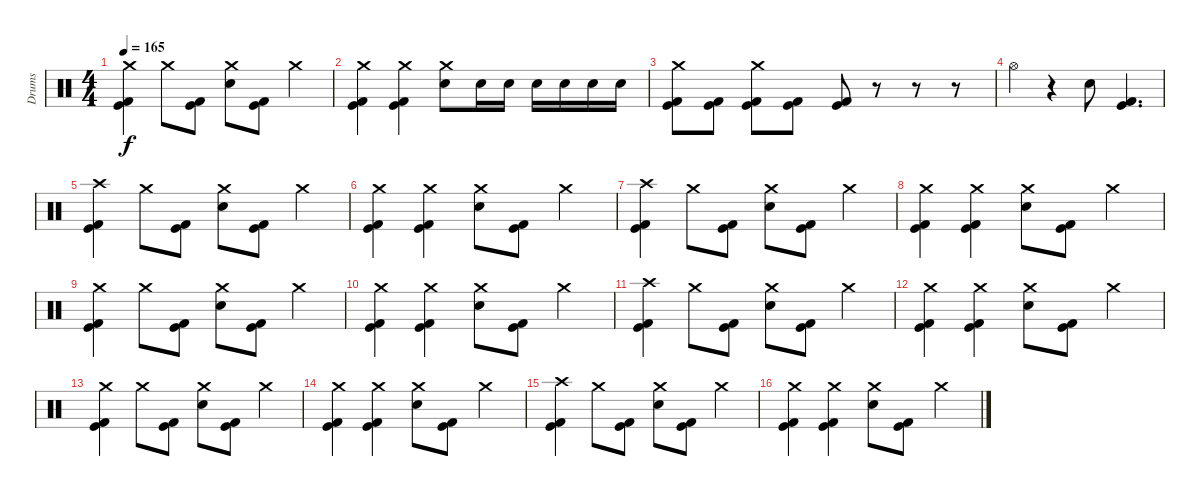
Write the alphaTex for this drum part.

\track ("Drums" "Drums") {instrument percussion}
\staff {score}
\articulation defaults
\ts (4 4)
\tempo 165
\clef neutral
\ks c
("Crash medium (hit)" "Kick (hit) 2" "Kick (hit)").4{dy f} "Crash medium (hit)".8 ("Kick (hit)" "Kick (hit) 2").8 ("Crash medium (hit)" "Electric Snare (hit)").8 ("Kick (hit)" "Kick (hit) 2").8 "Crash medium (hit)".4 |
("Crash medium (hit)" "Kick (hit)" "Kick (hit) 2").4 ("Crash medium (hit)" "Kick (hit)" "Kick (hit) 2").4 ("Crash medium (hit)" "Electric Snare (hit)").8 "Electric Snare (hit)".16 "Electric Snare (hit)".16 "Electric Snare (hit)".16 "Electric Snare (hit)".16 "Electric Snare (hit)".16 "Electric Snare (hit)".16 |
("Crash medium (hit)" "Kick (hit) 2" "Kick (hit)").8 ("Kick (hit) 2" "Kick (hit)").8 ("Crash medium (hit)" "Kick (hit)" "Kick (hit) 2").8 ("Kick (hit)" "Kick (hit) 2").8 ("Kick (hit)" "Kick (hit) 2").8 r.8 r.8 r.8 |
"Hi-Hat (open)".4 r.4 "Electric Snare (hit)".8 ("Kick (hit)" "Kick (hit) 2").4{d} |
("Crash high (hit)" "Kick (hit) 2" "Kick (hit)").4 "Crash medium (hit)".8 ("Kick (hit)" "Kick (hit) 2").8 ("Crash medium (hit)" "Electric Snare (hit)").8 ("Kick (hit)" "Kick (hit) 2").8 "Crash medium (hit)".4 |
("Crash medium (hit)" "Kick (hit)" "Kick (hit) 2").4 ("Crash medium (hit)" "Kick (hit)" "Kick (hit) 2").4 ("Crash medium (hit)" "Electric Snare (hit)").8 ("Kick (hit)" "Kick (hit) 2").8 "Crash medium (hit)".4 |
("Crash high (hit)" "Kick (hit) 2" "Kick (hit)").4 "Crash medium (hit)".8 ("Kick (hit)" "Kick (hit) 2").8 ("Crash medium (hit)" "Electric Snare (hit)").8 ("Kick (hit)" "Kick (hit) 2").8 "Crash medium (hit)".4 |
("Crash medium (hit)" "Kick (hit)" "Kick (hit) 2").4 ("Crash medium (hit)" "Kick (hit)" "Kick (hit) 2").4 ("Crash medium (hit)" "Electric Snare (hit)").8 ("Kick (hit)" "Kick (hit) 2").8 "Crash medium (hit)".4 |
("Crash medium (hit)" "Kick (hit) 2" "Kick (hit)").4 "Crash medium (hit)".8 ("Kick (hit)" "Kick (hit) 2").8 ("Crash medium (hit)" "Electric Snare (hit)").8 ("Kick (hit)" "Kick (hit) 2").8 "Crash medium (hit)".4 |
("Crash medium (hit)" "Kick (hit)" "Kick (hit) 2").4 ("Crash medium (hit)" "Kick (hit)" "Kick (hit) 2").4 ("Crash medium (hit)" "Electric Snare (hit)").8 ("Kick (hit)" "Kick (hit) 2").8 "Crash medium (hit)".4 |
("Crash high (hit)" "Kick (hit) 2" "Kick (hit)").4 "Crash medium (hit)".8 ("Kick (hit)" "Kick (hit) 2").8 ("Crash medium (hit)" "Electric Snare (hit)").8 ("Kick (hit)" "Kick (hit) 2").8 "Crash medium (hit)".4 |
("Crash medium (hit)" "Kick (hit)" "Kick (hit) 2").4 ("Crash medium (hit)" "Kick (hit)" "Kick (hit) 2").4 ("Crash medium (hit)" "Electric Snare (hit)").8 ("Kick (hit)" "Kick (hit) 2").8 "Crash medium (hit)".4 |
("Crash medium (hit)" "Kick (hit) 2" "Kick (hit)").4 "Crash medium (hit)".8 ("Kick (hit)" "Kick (hit) 2").8 ("Crash medium (hit)" "Electric Snare (hit)").8 ("Kick (hit)" "Kick (hit) 2").8 "Crash medium (hit)".4 |
("Crash medium (hit)" "Kick (hit)" "Kick (hit) 2").4 ("Crash medium (hit)" "Kick (hit)" "Kick (hit) 2").4 ("Crash medium (hit)" "Electric Snare (hit)").8 ("Kick (hit)" "Kick (hit) 2").8 "Crash medium (hit)".4 |
("Crash high (hit)" "Kick (hit) 2" "Kick (hit)").4 "Crash medium (hit)".8 ("Kick (hit)" "Kick (hit) 2").8 ("Crash medium (hit)" "Electric Snare (hit)").8 ("Kick (hit)" "Kick (hit) 2").8 "Crash medium (hit)".4 |
("Crash medium (hit)" "Kick (hit)" "Kick (hit) 2").4 ("Crash medium (hit)" "Kick (hit)" "Kick (hit) 2").4 ("Crash medium (hit)" "Electric Snare (hit)").8 ("Kick (hit)" "Kick (hit) 2").8 "Crash medium (hit)".4
